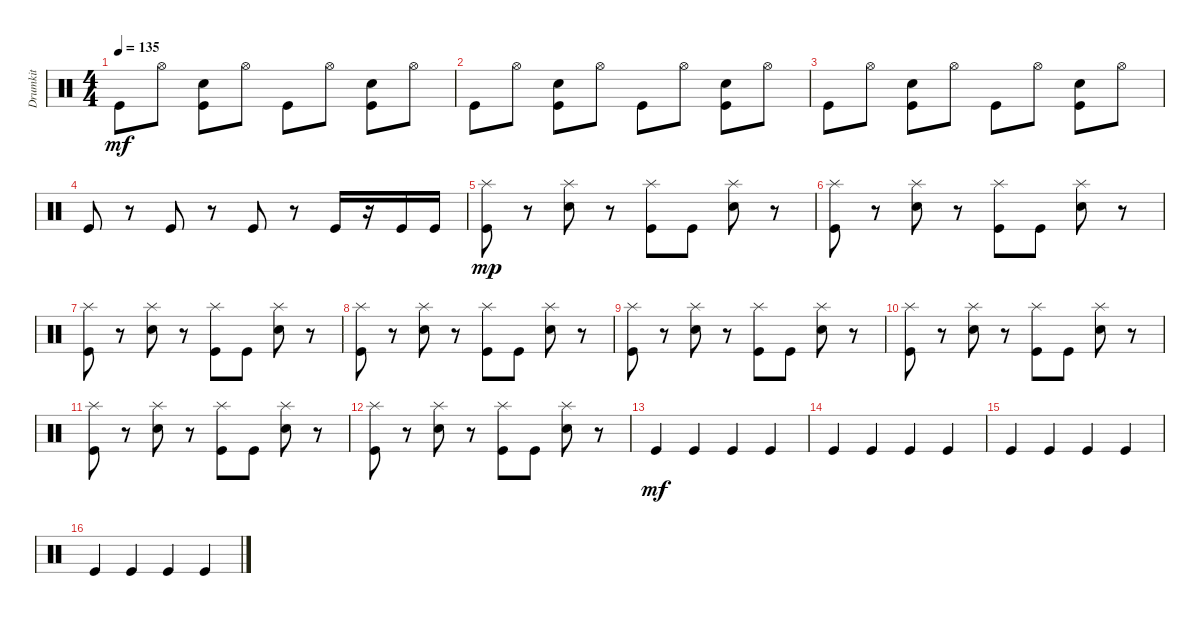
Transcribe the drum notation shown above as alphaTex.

\track ("Drumkit" "Drumkit") {instrument percussion}
\staff {score}
\articulation defaults
\ts (4 4)
\tempo 135
\clef neutral
\ks c "Kick (hit)".8{dy mf} "Hi-Hat (open)".8
("Kick (hit)" "Snare (hit) 2").8 "Hi-Hat (open)".8 "Kick (hit)".8 "Hi-Hat (open)".8 ("Kick (hit)" "Snare (hit) 2").8 "Hi-Hat (open)".8 |
"Kick (hit)".8 "Hi-Hat (open)".8 ("Kick (hit)" "Snare (hit) 2").8 "Hi-Hat (open)".8 "Kick (hit)".8 "Hi-Hat (open)".8 ("Kick (hit)" "Snare (hit) 2").8 "Hi-Hat (open)".8 |
"Kick (hit)".8 "Hi-Hat (open)".8 ("Kick (hit)" "Snare (hit) 2").8 "Hi-Hat (open)".8 "Kick (hit)".8 "Hi-Hat (open)".8 ("Kick (hit)" "Snare (hit) 2").8 "Hi-Hat (open)".8 |
"Kick (hit)".8 r.8 "Kick (hit)".8 r.8 "Kick (hit)".8 r.8 "Kick (hit)".16 r.16 "Kick (hit)".16 "Kick (hit)".16 |
("Kick (hit)" "Splash (hit)").8{dy mp} r.8 ("Snare (hit) 2" "Splash (hit)").8 r.8 ("Kick (hit)" "Splash (hit)").8 "Kick (hit)".8 ("Snare (hit) 2" "Splash (hit)").8 r.8 |
("Kick (hit)" "Splash (hit)").8 r.8 ("Snare (hit) 2" "Splash (hit)").8 r.8 ("Kick (hit)" "Splash (hit)").8 "Kick (hit)".8 ("Snare (hit) 2" "Splash (hit)").8 r.8 |
("Kick (hit)" "Splash (hit)").8 r.8 ("Snare (hit) 2" "Splash (hit)").8 r.8 ("Kick (hit)" "Splash (hit)").8 "Kick (hit)".8 ("Snare (hit) 2" "Splash (hit)").8 r.8 |
("Kick (hit)" "Splash (hit)").8 r.8 ("Snare (hit) 2" "Splash (hit)").8 r.8 ("Kick (hit)" "Splash (hit)").8 "Kick (hit)".8 ("Snare (hit) 2" "Splash (hit)").8 r.8 |
("Kick (hit)" "Splash (hit)").8 r.8 ("Snare (hit) 2" "Splash (hit)").8 r.8 ("Kick (hit)" "Splash (hit)").8 "Kick (hit)".8 ("Snare (hit) 2" "Splash (hit)").8 r.8 |
("Kick (hit)" "Splash (hit)").8 r.8 ("Snare (hit) 2" "Splash (hit)").8 r.8 ("Kick (hit)" "Splash (hit)").8 "Kick (hit)".8 ("Snare (hit) 2" "Splash (hit)").8 r.8 |
("Kick (hit)" "Splash (hit)").8 r.8 ("Snare (hit) 2" "Splash (hit)").8 r.8 ("Kick (hit)" "Splash (hit)").8 "Kick (hit)".8 ("Snare (hit) 2" "Splash (hit)").8 r.8 |
("Kick (hit)" "Splash (hit)").8 r.8 ("Snare (hit) 2" "Splash (hit)").8 r.8 ("Kick (hit)" "Splash (hit)").8 "Kick (hit)".8 ("Snare (hit) 2" "Splash (hit)").8 r.8 |
"Kick (hit)".4{dy mf} "Kick (hit)".4 "Kick (hit)".4 "Kick (hit)".4 |
"Kick (hit)".4 "Kick (hit)".4 "Kick (hit)".4 "Kick (hit)".4 |
"Kick (hit)".4 "Kick (hit)".4 "Kick (hit)".4 "Kick (hit)".4 |
"Kick (hit)".4 "Kick (hit)".4 "Kick (hit)".4 "Kick (hit)".4
